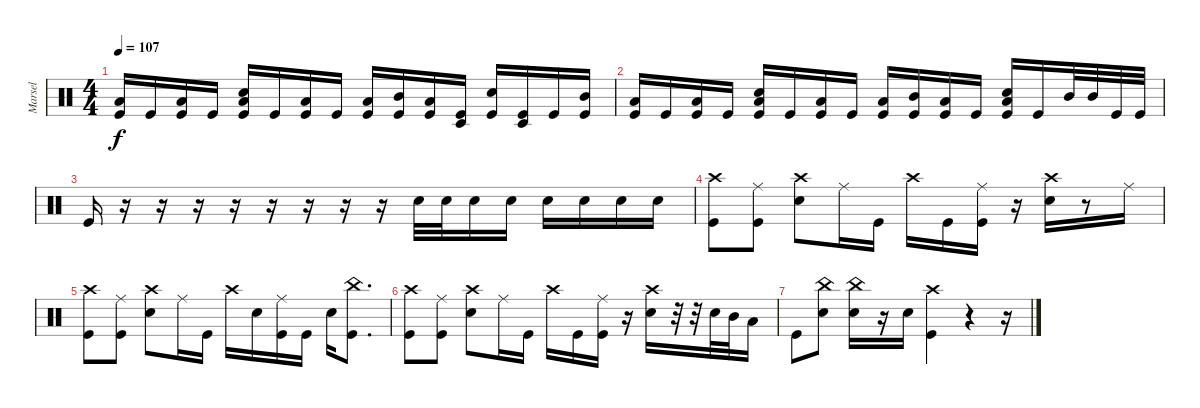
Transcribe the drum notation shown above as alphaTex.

\track ("Marsel" "Marsel") {instrument percussion}
\staff {score}
\articulation defaults
\ts (4 4)
\tempo 107
\clef neutral
\ks c
("Low Tom (hit)" "Kick (hit)").16{dy f} "Kick (hit)".16 ("Low Tom (hit)" "Kick (hit)").16 "Kick (hit)".16 ("Snare (hit) 2" "Low Tom (hit)" "Kick (hit)").16 "Kick (hit)".16 ("Low Tom (hit)" "Kick (hit)").16 "Kick (hit)".16 ("Low Tom (hit)" "Kick (hit)").16 ("Mid Tom (hit)" "Kick (hit)").16 ("Low Tom (hit)" "Kick (hit)").16 ("Timbale low (hit)" "Kick (hit)").16 ("Snare (hit) 2" "Kick (hit)").16 ("Timbale low (hit)" "Kick (hit)").16 "Kick (hit)".16 ("Mid Tom (hit)" "Kick (hit)").16 |
("Low Tom (hit)" "Kick (hit)").16 "Kick (hit)".16 ("Low Tom (hit)" "Kick (hit)").16 "Kick (hit)".16 ("Snare (hit) 2" "Low Tom (hit)" "Kick (hit)").16 "Kick (hit)".16 ("Low Tom (hit)" "Kick (hit)").16 "Kick (hit)".16 ("Low Tom (hit)" "Kick (hit)").16 ("Mid Tom (hit)" "Kick (hit)").16 ("Low Tom (hit)" "Kick (hit)").16 "Kick (hit)".16 ("Snare (hit) 2" "Low Tom (hit)" "Kick (hit)").16 "Kick (hit)".16 "Mid Tom (hit)".32 "Mid Tom (hit)".32 "Kick (hit)".32 "Kick (hit)".32 |
"Kick (hit)".16 r.16 r.16 r.16 r.16 r.16 r.16 r.16 r.16 "Snare (hit) 2".32 "Snare (hit) 2".32 "Snare (hit) 2".16 "Snare (hit) 2".16 "Snare (hit) 2".16 "Snare (hit) 2".16 "Snare (hit) 2".16 "Snare (hit) 2".16 |
("Crash high (hit)" "Kick (hit)").8 ("Ride (middle)" "Kick (hit)").8 ("Crash high (hit)" "Snare (hit) 2").8 "Ride (middle)".16 "Kick (hit)".16 "Crash high (hit)".16 "Kick (hit)".16 ("Ride (middle)" "Kick (hit)").16 r.16 ("Crash high (hit)" "Snare (hit) 2").16 r.8 "Ride (middle)".16 |
("Crash high (hit)" "Kick (hit)").8 ("Ride (middle)" "Kick (hit)").8 ("Crash high (hit)" "Snare (hit) 2").8 "Ride (middle)".16 "Kick (hit)".16 "Crash high (hit)".16 "Snare (hit) 2".16 ("Ride (middle)" "Kick (hit)").16 "Kick (hit)".16 "Snare (hit) 2".16 ("China (hit)" "Kick (hit)").8{d} |
("Crash high (hit)" "Kick (hit)").8 ("Ride (middle)" "Kick (hit)").8 ("Crash high (hit)" "Snare (hit) 2").8 "Ride (middle)".16 "Kick (hit)".16 "Crash high (hit)".16 "Kick (hit)".16 ("Ride (middle)" "Kick (hit)").16 r.16 ("Crash high (hit)" "Snare (hit) 2").16 r.32 r.32 "Snare (hit) 2".32 "Mid Tom (hit)".32 "Low Tom (hit)".16 |
"Kick (hit)".8 ("China (hit)" "Snare (hit) 2").8 ("China (hit)" "Snare (hit) 2").16 r.16 "Snare (hit) 2".16 ("Crash high (hit)" "Kick (hit)").4 r.4 r.16
